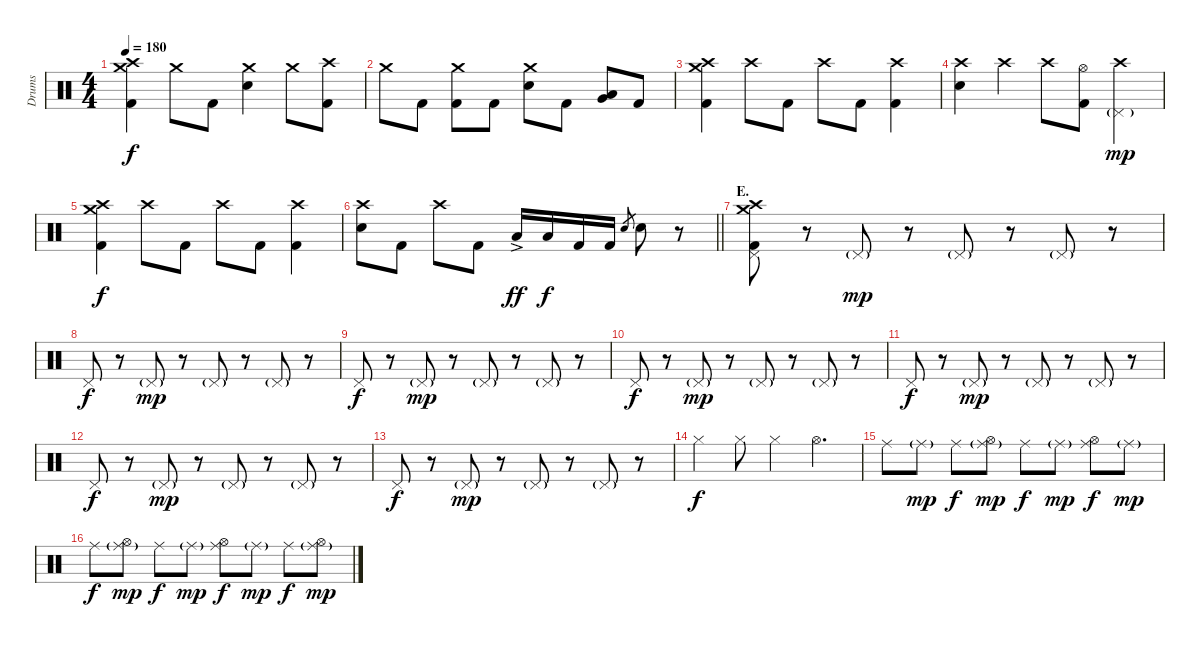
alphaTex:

\track ("Drums" "Drums") {instrument percussion}
\staff {score}
\articulation defaults
\ts (4 4)
\tempo 180
\clef neutral
\ks c
("Crash medium (hit)" "Crash high (hit)" "Kick (hit) 2").4{dy f} "Crash medium (hit)".8 "Kick (hit) 2".8 ("Crash medium (hit)" "Electric Snare (hit)").4 "Crash medium (hit)".8 ("Crash high (hit)" "Kick (hit) 2").8 |
"Crash medium (hit)".8 "Kick (hit) 2".8 ("Crash medium (hit)" "Kick (hit) 2").8 "Kick (hit) 2".8 ("Crash medium (hit)" "Electric Snare (hit)").8 "Kick (hit) 2".8 ("Very Low Tom (hit)" "Low Floor Tom (hit)").8{bu 120} "Kick (hit) 2".8 |
("Crash medium (hit)" "Crash high (hit)" "Kick (hit) 2").4 "Crash high (hit)".8 "Kick (hit) 2".8 "Crash high (hit)".8 "Kick (hit) 2".8 ("Crash high (hit)" "Kick (hit) 2").4 |
("Crash high (hit)" "Electric Snare (hit)").4 "Crash high (hit)".4 "Crash high (hit)".8 ("Hi-Hat (open)" "Kick (hit) 2").8 ("Crash high (hit)" "Pedal Hi-Hat (hit)"{g}).4{dy mp} |
("Crash medium (hit)" "Crash high (hit)" "Kick (hit) 2").4{dy f} "Crash high (hit)".8 "Kick (hit) 2".8 "Crash high (hit)".8 "Kick (hit) 2".8 ("Crash high (hit)" "Kick (hit) 2").4 |
\barLineRight lightlight
("Crash high (hit)" "Electric Snare (hit)").8 "Kick (hit) 2".8 "Crash high (hit)".8 "Kick (hit) 2".8 "Low Tom (hit)"{ac}.16{dy ff} "Low Tom (hit)".16{dy f} "Kick (hit) 2".16 "Kick (hit) 2".16 "Electric Snare (hit)".8{gr} "Electric Snare (hit)".8 r.8 |
\section ("" "E.")
("Crash medium (hit)" "Crash high (hit)" "Pedal Hi-Hat (hit)" "Kick (hit) 2").8 r.8 "Pedal Hi-Hat (hit)"{g}.8{dy mp} r.8 "Pedal Hi-Hat (hit)"{g}.8 r.8 "Pedal Hi-Hat (hit)"{g}.8 r.8 |
"Pedal Hi-Hat (hit)".8{dy f} r.8 "Pedal Hi-Hat (hit)"{g}.8{dy mp} r.8 "Pedal Hi-Hat (hit)"{g}.8 r.8 "Pedal Hi-Hat (hit)"{g}.8 r.8 |
"Pedal Hi-Hat (hit)".8{dy f} r.8 "Pedal Hi-Hat (hit)"{g}.8{dy mp} r.8 "Pedal Hi-Hat (hit)"{g}.8 r.8 "Pedal Hi-Hat (hit)"{g}.8 r.8 |
"Pedal Hi-Hat (hit)".8{dy f} r.8 "Pedal Hi-Hat (hit)"{g}.8{dy mp} r.8 "Pedal Hi-Hat (hit)"{g}.8 r.8 "Pedal Hi-Hat (hit)"{g}.8 r.8 |
"Pedal Hi-Hat (hit)".8{dy f} r.8 "Pedal Hi-Hat (hit)"{g}.8{dy mp} r.8 "Pedal Hi-Hat (hit)"{g}.8 r.8 "Pedal Hi-Hat (hit)"{g}.8 r.8 |
"Pedal Hi-Hat (hit)".8{dy f} r.8 "Pedal Hi-Hat (hit)"{g}.8{dy mp} r.8 "Pedal Hi-Hat (hit)"{g}.8 r.8 "Pedal Hi-Hat (hit)"{g}.8 r.8 |
"Pedal Hi-Hat (hit)".8{dy f} r.8 "Pedal Hi-Hat (hit)"{g}.8{dy mp} r.8 "Pedal Hi-Hat (hit)"{g}.8 r.8 "Pedal Hi-Hat (hit)"{g}.8 r.8 |
"Hi-Hat (closed)".4{dy f} "Hi-Hat (closed)".8 "Hi-Hat (closed)".4 "Hi-Hat (open)".4{d} |
"Ride (middle)".8 "Ride (middle)"{g}.8{dy mp} "Ride (middle)".8{dy f} ("Ride (middle)"{g} "Hi-Hat (open)").8{dy mp} "Ride (middle)".8{dy f} "Ride (middle)"{g}.8{dy mp} ("Ride (middle)" "Hi-Hat (open)").8{dy f} "Ride (middle)"{g}.8{dy mp} |
"Ride (middle)".8{dy f} ("Ride (middle)"{g} "Hi-Hat (open)").8{dy mp} "Ride (middle)".8{dy f} "Ride (middle)"{g}.8{dy mp} ("Ride (middle)" "Hi-Hat (open)").8{dy f} "Ride (middle)"{g}.8{dy mp} "Ride (middle)".8{dy f} ("Ride (middle)"{g} "Hi-Hat (open)").8{dy mp}
